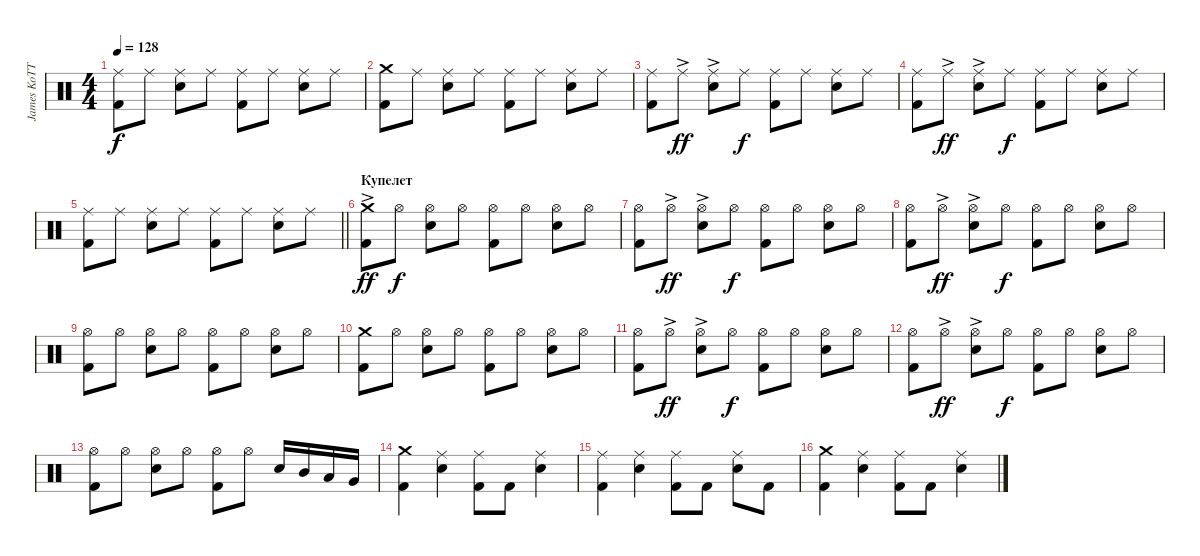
\track ("James KoTTak" "James KoTT") {instrument percussion}
\staff {score}
\articulation defaults
\ts (4 4)
\tempo 128
\clef neutral
\ks c
("Kick (hit) 2" "Ride (middle)").8{dy f} "Ride (middle)".8 ("Ride (middle)" "Snare (hit) 2").8 "Ride (middle)".8 ("Ride (middle)" "Kick (hit) 2").8 "Ride (middle)".8 ("Ride (middle)" "Snare (hit) 2").8 "Ride (middle)".8 |
("Kick (hit) 2" "Crash medium (hit)").8 "Ride (middle)".8 ("Ride (middle)" "Snare (hit) 2").8 "Ride (middle)".8 ("Ride (middle)" "Kick (hit) 2").8 "Ride (middle)".8 ("Ride (middle)" "Snare (hit) 2").8 "Ride (middle)".8 |
("Kick (hit) 2" "Ride (middle)").8 "Ride (middle)"{ac}.8{dy ff} ("Ride (middle)"{ac} "Snare (hit) 2").8 "Ride (middle)".8{dy f} ("Ride (middle)" "Kick (hit) 2").8 "Ride (middle)".8 ("Ride (middle)" "Snare (hit) 2").8 "Ride (middle)".8 |
("Kick (hit) 2" "Ride (middle)").8 "Ride (middle)"{ac}.8{dy ff} ("Ride (middle)"{ac} "Snare (hit) 2").8 "Ride (middle)".8{dy f} ("Ride (middle)" "Kick (hit) 2").8 "Ride (middle)".8 ("Ride (middle)" "Snare (hit) 2").8 "Ride (middle)".8 |
\barLineRight lightlight
("Kick (hit) 2" "Ride (middle)").8 "Ride (middle)".8 ("Ride (middle)" "Snare (hit) 2").8 "Ride (middle)".8 ("Ride (middle)" "Kick (hit) 2").8 "Ride (middle)".8 ("Ride (middle)" "Snare (hit) 2").8 "Ride (middle)".8 |
\section ("" "Купелет")
("Crash medium (hit)"{ac} "Kick (hit) 2").8{dy ff} "Hi-Hat (open)".8{dy f} ("Hi-Hat (open)" "Snare (hit) 2").8 "Hi-Hat (open)".8 ("Hi-Hat (open)" "Kick (hit) 2").8 "Hi-Hat (open)".8 ("Hi-Hat (open)" "Snare (hit) 2").8 "Hi-Hat (open)".8 |
("Kick (hit) 2" "Hi-Hat (open)").8 "Hi-Hat (open)"{ac}.8{dy ff} ("Hi-Hat (open)"{ac} "Snare (hit) 2").8 "Hi-Hat (open)".8{dy f} ("Hi-Hat (open)" "Kick (hit) 2").8 "Hi-Hat (open)".8 ("Hi-Hat (open)" "Snare (hit) 2").8 "Hi-Hat (open)".8 |
("Kick (hit) 2" "Hi-Hat (open)").8 "Hi-Hat (open)"{ac}.8{dy ff} ("Hi-Hat (open)"{ac} "Snare (hit) 2").8 "Hi-Hat (open)".8{dy f} ("Hi-Hat (open)" "Kick (hit) 2").8 "Hi-Hat (open)".8 ("Hi-Hat (open)" "Snare (hit) 2").8 "Hi-Hat (open)".8 |
("Kick (hit) 2" "Hi-Hat (open)").8 "Hi-Hat (open)".8 ("Hi-Hat (open)" "Snare (hit) 2").8 "Hi-Hat (open)".8 ("Hi-Hat (open)" "Kick (hit) 2").8 "Hi-Hat (open)".8 ("Hi-Hat (open)" "Snare (hit) 2").8 "Hi-Hat (open)".8 |
("Kick (hit) 2" "Crash medium (hit)").8 "Hi-Hat (open)".8 ("Hi-Hat (open)" "Snare (hit) 2").8 "Hi-Hat (open)".8 ("Hi-Hat (open)" "Kick (hit) 2").8 "Hi-Hat (open)".8 ("Hi-Hat (open)" "Snare (hit) 2").8 "Hi-Hat (open)".8 |
("Kick (hit) 2" "Hi-Hat (open)").8 "Hi-Hat (open)"{ac}.8{dy ff} ("Hi-Hat (open)"{ac} "Snare (hit) 2").8 "Hi-Hat (open)".8{dy f} ("Hi-Hat (open)" "Kick (hit) 2").8 "Hi-Hat (open)".8 ("Hi-Hat (open)" "Snare (hit) 2").8 "Hi-Hat (open)".8 |
("Kick (hit) 2" "Hi-Hat (open)").8 "Hi-Hat (open)"{ac}.8{dy ff} ("Hi-Hat (open)"{ac} "Snare (hit) 2").8 "Hi-Hat (open)".8{dy f} ("Hi-Hat (open)" "Kick (hit) 2").8 "Hi-Hat (open)".8 ("Hi-Hat (open)" "Snare (hit) 2").8 "Hi-Hat (open)".8 |
("Kick (hit) 2" "Hi-Hat (open)").8 "Hi-Hat (open)".8 ("Hi-Hat (open)" "Snare (hit) 2").8 "Hi-Hat (open)".8 ("Hi-Hat (open)" "Kick (hit) 2").8 "Hi-Hat (open)".8 "Snare (hit) 2".16 "Mid Tom (hit)".16 "Low Tom (hit)".16 "Very Low Tom (hit)".16 |
("Crash medium (hit)" "Kick (hit) 2").4 ("Ride (middle)" "Snare (hit) 2").4 ("Ride (middle)" "Kick (hit) 2").8 "Kick (hit) 2".8 ("Ride (middle)" "Snare (hit) 2").4 |
("Ride (middle)" "Kick (hit) 2").4 ("Ride (middle)" "Snare (hit) 2").4 ("Ride (middle)" "Kick (hit) 2").8 "Kick (hit) 2".8 ("Ride (middle)" "Snare (hit) 2").8 "Kick (hit) 2".8 |
("Crash medium (hit)" "Kick (hit) 2").4 ("Ride (middle)" "Snare (hit) 2").4 ("Ride (middle)" "Kick (hit) 2").8 "Kick (hit) 2".8 ("Ride (middle)" "Snare (hit) 2").4
